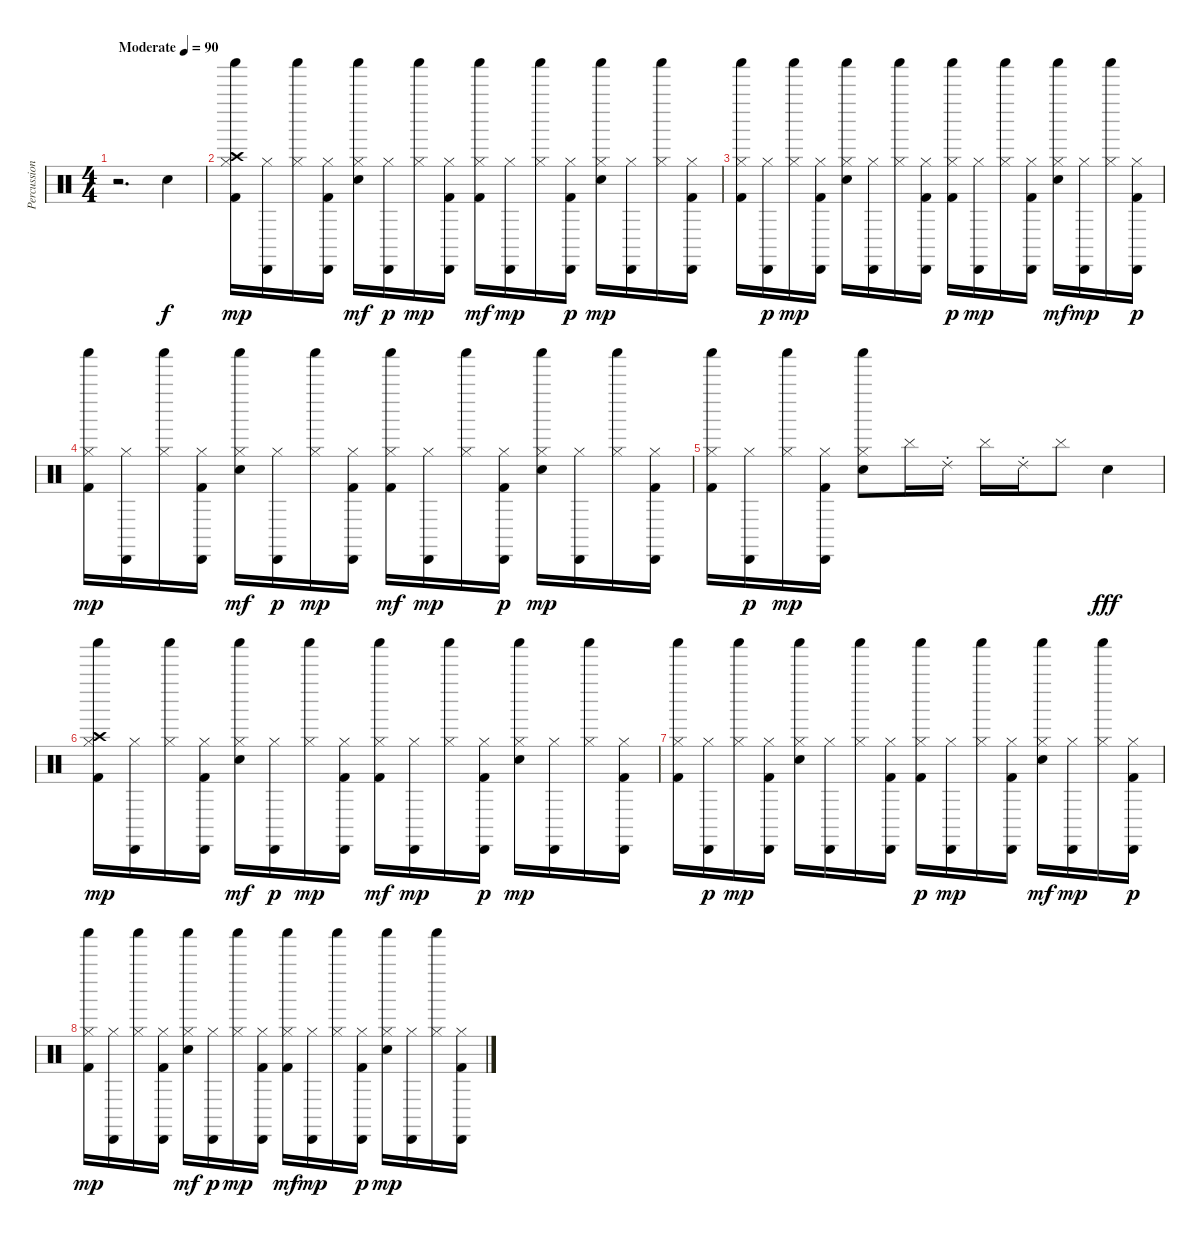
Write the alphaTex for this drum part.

\track ("Percussions" "Percussion") {instrument percussion}
\staff {score}
\articulation defaults
\ts (4 4)
\tempo (90 "Moderate")
\clef neutral
\ks c
r.2{d dy f} "Electric Snare (hit)".4 |
("Kick (hit) 2" "Hi-Hat (closed)" "Crash high (hit)" "Shaker (hit)").16{dy mp} ("Hi-Hat (closed)" "Cabasa (hit)").16 ("Hi-Hat (closed)" "Shaker (hit)").16 ("Kick (hit) 2" "Hi-Hat (closed)" "Cabasa (hit)").16 ("Electric Snare (hit)" "Hi-Hat (closed)" "Shaker (hit)").16{dy mf} ("Hi-Hat (closed)" "Cabasa (hit)").16{dy p} ("Hi-Hat (closed)" "Shaker (hit)").16{dy mp} ("Kick (hit) 2" "Hi-Hat (closed)" "Cabasa (hit)").16 ("Kick (hit) 2" "Hi-Hat (closed)" "Shaker (hit)").16{dy mf} ("Hi-Hat (closed)" "Cabasa (hit)").16{dy mp} ("Hi-Hat (closed)" "Shaker (hit)").16 ("Kick (hit) 2" "Hi-Hat (closed)" "Cabasa (hit)").16{dy p} ("Electric Snare (hit)" "Hi-Hat (closed)" "Shaker (hit)").16{dy mp} ("Hi-Hat (closed)" "Cabasa (hit)").16 ("Hi-Hat (closed)" "Shaker (hit)").16 ("Kick (hit) 2" "Hi-Hat (closed)" "Cabasa (hit)").16 |
("Kick (hit) 2" "Hi-Hat (closed)" "Shaker (hit)").16 ("Hi-Hat (closed)" "Cabasa (hit)").16{dy p} ("Hi-Hat (closed)" "Shaker (hit)").16{dy mp} ("Kick (hit) 2" "Hi-Hat (closed)" "Cabasa (hit)").16 ("Electric Snare (hit)" "Hi-Hat (closed)" "Shaker (hit)").16 ("Hi-Hat (closed)" "Cabasa (hit)").16 ("Hi-Hat (closed)" "Shaker (hit)").16 ("Kick (hit) 2" "Hi-Hat (closed)" "Cabasa (hit)").16 ("Kick (hit) 2" "Hi-Hat (closed)" "Shaker (hit)").16{dy p} ("Hi-Hat (closed)" "Cabasa (hit)").16{dy mp} ("Hi-Hat (closed)" "Shaker (hit)").16 ("Kick (hit) 2" "Hi-Hat (closed)" "Cabasa (hit)").16 ("Electric Snare (hit)" "Hi-Hat (closed)" "Shaker (hit)").16{dy mf} ("Hi-Hat (closed)" "Cabasa (hit)").16{dy mp} ("Hi-Hat (closed)" "Shaker (hit)").16 ("Kick (hit) 2" "Hi-Hat (closed)" "Cabasa (hit)").16{dy p} |
("Kick (hit) 2" "Hi-Hat (closed)" "Shaker (hit)").16{dy mp} ("Hi-Hat (closed)" "Cabasa (hit)").16 ("Hi-Hat (closed)" "Shaker (hit)").16 ("Kick (hit) 2" "Hi-Hat (closed)" "Cabasa (hit)").16 ("Electric Snare (hit)" "Hi-Hat (closed)" "Shaker (hit)").16{dy mf} ("Hi-Hat (closed)" "Cabasa (hit)").16{dy p} ("Hi-Hat (closed)" "Shaker (hit)").16{dy mp} ("Kick (hit) 2" "Hi-Hat (closed)" "Cabasa (hit)").16 ("Kick (hit) 2" "Hi-Hat (closed)" "Shaker (hit)").16{dy mf} ("Hi-Hat (closed)" "Cabasa (hit)").16{dy mp} ("Hi-Hat (closed)" "Shaker (hit)").16 ("Kick (hit) 2" "Hi-Hat (closed)" "Cabasa (hit)").16{dy p} ("Electric Snare (hit)" "Hi-Hat (closed)" "Shaker (hit)").16{dy mp} ("Hi-Hat (closed)" "Cabasa (hit)").16 ("Hi-Hat (closed)" "Shaker (hit)").16 ("Kick (hit) 2" "Hi-Hat (closed)" "Cabasa (hit)").16 |
("Kick (hit) 2" "Hi-Hat (closed)" "Shaker (hit)").16 ("Hi-Hat (closed)" "Cabasa (hit)").16{dy p} ("Hi-Hat (closed)" "Shaker (hit)").16{dy mp} ("Kick (hit) 2" "Hi-Hat (closed)" "Cabasa (hit)").16 ("Electric Snare (hit)" "Hi-Hat (closed)" "Shaker (hit)").8 "Cymbal (hit)".16 "Ride (choke) 2".16 "Cymbal (hit)".16 "Ride (choke) 2".16 "Cymbal (hit)".8 "Electric Snare (hit)".4{dy fff} |
("Kick (hit) 2" "Hi-Hat (closed)" "Crash high (hit)" "Shaker (hit)").16{dy mp} ("Hi-Hat (closed)" "Cabasa (hit)").16 ("Hi-Hat (closed)" "Shaker (hit)").16 ("Kick (hit) 2" "Hi-Hat (closed)" "Cabasa (hit)").16 ("Electric Snare (hit)" "Hi-Hat (closed)" "Shaker (hit)").16{dy mf} ("Hi-Hat (closed)" "Cabasa (hit)").16{dy p} ("Hi-Hat (closed)" "Shaker (hit)").16{dy mp} ("Kick (hit) 2" "Hi-Hat (closed)" "Cabasa (hit)").16 ("Kick (hit) 2" "Hi-Hat (closed)" "Shaker (hit)").16{dy mf} ("Hi-Hat (closed)" "Cabasa (hit)").16{dy mp} ("Hi-Hat (closed)" "Shaker (hit)").16 ("Kick (hit) 2" "Hi-Hat (closed)" "Cabasa (hit)").16{dy p} ("Electric Snare (hit)" "Hi-Hat (closed)" "Shaker (hit)").16{dy mp} ("Hi-Hat (closed)" "Cabasa (hit)").16 ("Hi-Hat (closed)" "Shaker (hit)").16 ("Kick (hit) 2" "Hi-Hat (closed)" "Cabasa (hit)").16 |
("Kick (hit) 2" "Hi-Hat (closed)" "Shaker (hit)").16 ("Hi-Hat (closed)" "Cabasa (hit)").16{dy p} ("Hi-Hat (closed)" "Shaker (hit)").16{dy mp} ("Kick (hit) 2" "Hi-Hat (closed)" "Cabasa (hit)").16 ("Electric Snare (hit)" "Hi-Hat (closed)" "Shaker (hit)").16 ("Hi-Hat (closed)" "Cabasa (hit)").16 ("Hi-Hat (closed)" "Shaker (hit)").16 ("Kick (hit) 2" "Hi-Hat (closed)" "Cabasa (hit)").16 ("Kick (hit) 2" "Hi-Hat (closed)" "Shaker (hit)").16{dy p} ("Hi-Hat (closed)" "Cabasa (hit)").16{dy mp} ("Hi-Hat (closed)" "Shaker (hit)").16 ("Kick (hit) 2" "Hi-Hat (closed)" "Cabasa (hit)").16 ("Electric Snare (hit)" "Hi-Hat (closed)" "Shaker (hit)").16{dy mf} ("Hi-Hat (closed)" "Cabasa (hit)").16{dy mp} ("Hi-Hat (closed)" "Shaker (hit)").16 ("Kick (hit) 2" "Hi-Hat (closed)" "Cabasa (hit)").16{dy p} |
("Kick (hit) 2" "Hi-Hat (closed)" "Shaker (hit)").16{dy mp} ("Hi-Hat (closed)" "Cabasa (hit)").16 ("Hi-Hat (closed)" "Shaker (hit)").16 ("Kick (hit) 2" "Hi-Hat (closed)" "Cabasa (hit)").16 ("Electric Snare (hit)" "Hi-Hat (closed)" "Shaker (hit)").16{dy mf} ("Hi-Hat (closed)" "Cabasa (hit)").16{dy p} ("Hi-Hat (closed)" "Shaker (hit)").16{dy mp} ("Kick (hit) 2" "Hi-Hat (closed)" "Cabasa (hit)").16 ("Kick (hit) 2" "Hi-Hat (closed)" "Shaker (hit)").16{dy mf} ("Hi-Hat (closed)" "Cabasa (hit)").16{dy mp} ("Hi-Hat (closed)" "Shaker (hit)").16 ("Kick (hit) 2" "Hi-Hat (closed)" "Cabasa (hit)").16{dy p} ("Electric Snare (hit)" "Hi-Hat (closed)" "Shaker (hit)").16{dy mp} ("Hi-Hat (closed)" "Cabasa (hit)").16 ("Hi-Hat (closed)" "Shaker (hit)").16 ("Kick (hit) 2" "Hi-Hat (closed)" "Cabasa (hit)").16
